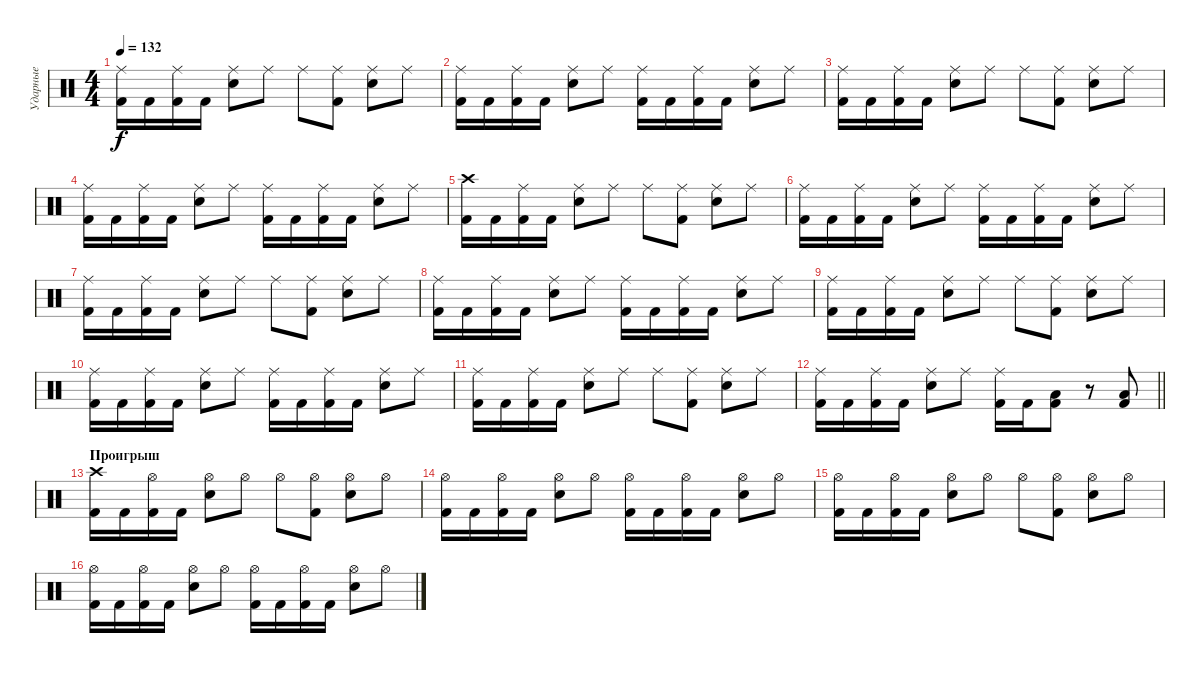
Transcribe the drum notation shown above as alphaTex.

\track ("Ударные" "Ударные") {instrument percussion}
\staff {score}
\articulation defaults
\ts (4 4)
\tempo 132
\clef neutral
\ks c
("Ride (middle)" "Kick (hit) 2").16{dy f} "Kick (hit) 2".16 ("Ride (middle)" "Kick (hit) 2").16 "Kick (hit) 2".16 ("Ride (middle)" "Snare (hit) 2").8 "Ride (middle)".8 "Ride (middle)".8 ("Ride (middle)" "Kick (hit) 2").8 ("Ride (middle)" "Snare (hit) 2").8 "Ride (middle)".8 |
("Ride (middle)" "Kick (hit) 2").16 "Kick (hit) 2".16 ("Ride (middle)" "Kick (hit) 2").16 "Kick (hit) 2".16 ("Ride (middle)" "Snare (hit) 2").8 "Ride (middle)".8 ("Ride (middle)" "Kick (hit) 2").16 "Kick (hit) 2".16 ("Ride (middle)" "Kick (hit) 2").16 "Kick (hit) 2".16 ("Ride (middle)" "Snare (hit) 2").8 "Ride (middle)".8 |
("Ride (middle)" "Kick (hit) 2").16 "Kick (hit) 2".16 ("Ride (middle)" "Kick (hit) 2").16 "Kick (hit) 2".16 ("Ride (middle)" "Snare (hit) 2").8 "Ride (middle)".8 "Ride (middle)".8 ("Ride (middle)" "Kick (hit) 2").8 ("Ride (middle)" "Snare (hit) 2").8 "Ride (middle)".8 |
("Ride (middle)" "Kick (hit) 2").16 "Kick (hit) 2".16 ("Ride (middle)" "Kick (hit) 2").16 "Kick (hit) 2".16 ("Ride (middle)" "Snare (hit) 2").8 "Ride (middle)".8 ("Ride (middle)" "Kick (hit) 2").16 "Kick (hit) 2".16 ("Ride (middle)" "Kick (hit) 2").16 "Kick (hit) 2".16 ("Ride (middle)" "Snare (hit) 2").8 "Ride (middle)".8 |
("Crash high (hit)" "Kick (hit) 2").16 "Kick (hit) 2".16 ("Ride (middle)" "Kick (hit) 2").16 "Kick (hit) 2".16 ("Ride (middle)" "Snare (hit) 2").8 "Ride (middle)".8 "Ride (middle)".8 ("Ride (middle)" "Kick (hit) 2").8 ("Ride (middle)" "Snare (hit) 2").8 "Ride (middle)".8 |
("Ride (middle)" "Kick (hit) 2").16 "Kick (hit) 2".16 ("Ride (middle)" "Kick (hit) 2").16 "Kick (hit) 2".16 ("Ride (middle)" "Snare (hit) 2").8 "Ride (middle)".8 ("Ride (middle)" "Kick (hit) 2").16 "Kick (hit) 2".16 ("Ride (middle)" "Kick (hit) 2").16 "Kick (hit) 2".16 ("Ride (middle)" "Snare (hit) 2").8 "Ride (middle)".8 |
("Ride (middle)" "Kick (hit) 2").16 "Kick (hit) 2".16 ("Ride (middle)" "Kick (hit) 2").16 "Kick (hit) 2".16 ("Ride (middle)" "Snare (hit) 2").8 "Ride (middle)".8 "Ride (middle)".8 ("Ride (middle)" "Kick (hit) 2").8 ("Ride (middle)" "Snare (hit) 2").8 "Ride (middle)".8 |
("Ride (middle)" "Kick (hit) 2").16 "Kick (hit) 2".16 ("Ride (middle)" "Kick (hit) 2").16 "Kick (hit) 2".16 ("Ride (middle)" "Snare (hit) 2").8 "Ride (middle)".8 ("Ride (middle)" "Kick (hit) 2").16 "Kick (hit) 2".16 ("Ride (middle)" "Kick (hit) 2").16 "Kick (hit) 2".16 ("Ride (middle)" "Snare (hit) 2").8 "Ride (middle)".8 |
("Ride (middle)" "Kick (hit) 2").16 "Kick (hit) 2".16 ("Ride (middle)" "Kick (hit) 2").16 "Kick (hit) 2".16 ("Ride (middle)" "Snare (hit) 2").8 "Ride (middle)".8 "Ride (middle)".8 ("Ride (middle)" "Kick (hit) 2").8 ("Ride (middle)" "Snare (hit) 2").8 "Ride (middle)".8 |
("Ride (middle)" "Kick (hit) 2").16 "Kick (hit) 2".16 ("Ride (middle)" "Kick (hit) 2").16 "Kick (hit) 2".16 ("Ride (middle)" "Snare (hit) 2").8 "Ride (middle)".8 ("Ride (middle)" "Kick (hit) 2").16 "Kick (hit) 2".16 ("Ride (middle)" "Kick (hit) 2").16 "Kick (hit) 2".16 ("Ride (middle)" "Snare (hit) 2").8 "Ride (middle)".8 |
("Ride (middle)" "Kick (hit) 2").16 "Kick (hit) 2".16 ("Ride (middle)" "Kick (hit) 2").16 "Kick (hit) 2".16 ("Ride (middle)" "Snare (hit) 2").8 "Ride (middle)".8 "Ride (middle)".8 ("Ride (middle)" "Kick (hit) 2").8 ("Ride (middle)" "Snare (hit) 2").8 "Ride (middle)".8 |
\barLineRight lightlight
("Ride (middle)" "Kick (hit) 2").16 "Kick (hit) 2".16 ("Ride (middle)" "Kick (hit) 2").16 "Kick (hit) 2".16 ("Ride (middle)" "Snare (hit) 2").8 "Ride (middle)".8 ("Ride (middle)" "Kick (hit) 2").16 "Kick (hit) 2".16 ("Low Tom (hit)" "Kick (hit) 2").8 r.8 ("Low Tom (hit)" "Kick (hit) 2").8 |
\section ("" "Проигрыш")
("Crash high (hit)" "Kick (hit) 2").16 "Kick (hit) 2".16 ("Hi-Hat (open)" "Kick (hit) 2").16 "Kick (hit) 2".16 ("Hi-Hat (open)" "Snare (hit) 2").8 "Hi-Hat (open)".8 "Hi-Hat (open)".8 ("Hi-Hat (open)" "Kick (hit) 2").8 ("Hi-Hat (open)" "Snare (hit) 2").8 "Hi-Hat (open)".8 |
("Hi-Hat (open)" "Kick (hit) 2").16 "Kick (hit) 2".16 ("Hi-Hat (open)" "Kick (hit) 2").16 "Kick (hit) 2".16 ("Hi-Hat (open)" "Snare (hit) 2").8 "Hi-Hat (open)".8 ("Hi-Hat (open)" "Kick (hit) 2").16 "Kick (hit) 2".16 ("Hi-Hat (open)" "Kick (hit) 2").16 "Kick (hit) 2".16 ("Hi-Hat (open)" "Snare (hit) 2").8 "Hi-Hat (open)".8 |
("Hi-Hat (open)" "Kick (hit) 2").16 "Kick (hit) 2".16 ("Hi-Hat (open)" "Kick (hit) 2").16 "Kick (hit) 2".16 ("Hi-Hat (open)" "Snare (hit) 2").8 "Hi-Hat (open)".8 "Hi-Hat (open)".8 ("Hi-Hat (open)" "Kick (hit) 2").8 ("Hi-Hat (open)" "Snare (hit) 2").8 "Hi-Hat (open)".8 |
("Hi-Hat (open)" "Kick (hit) 2").16 "Kick (hit) 2".16 ("Hi-Hat (open)" "Kick (hit) 2").16 "Kick (hit) 2".16 ("Hi-Hat (open)" "Snare (hit) 2").8 "Hi-Hat (open)".8 ("Hi-Hat (open)" "Kick (hit) 2").16 "Kick (hit) 2".16 ("Hi-Hat (open)" "Kick (hit) 2").16 "Kick (hit) 2".16 ("Hi-Hat (open)" "Snare (hit) 2").8 "Hi-Hat (open)".8
